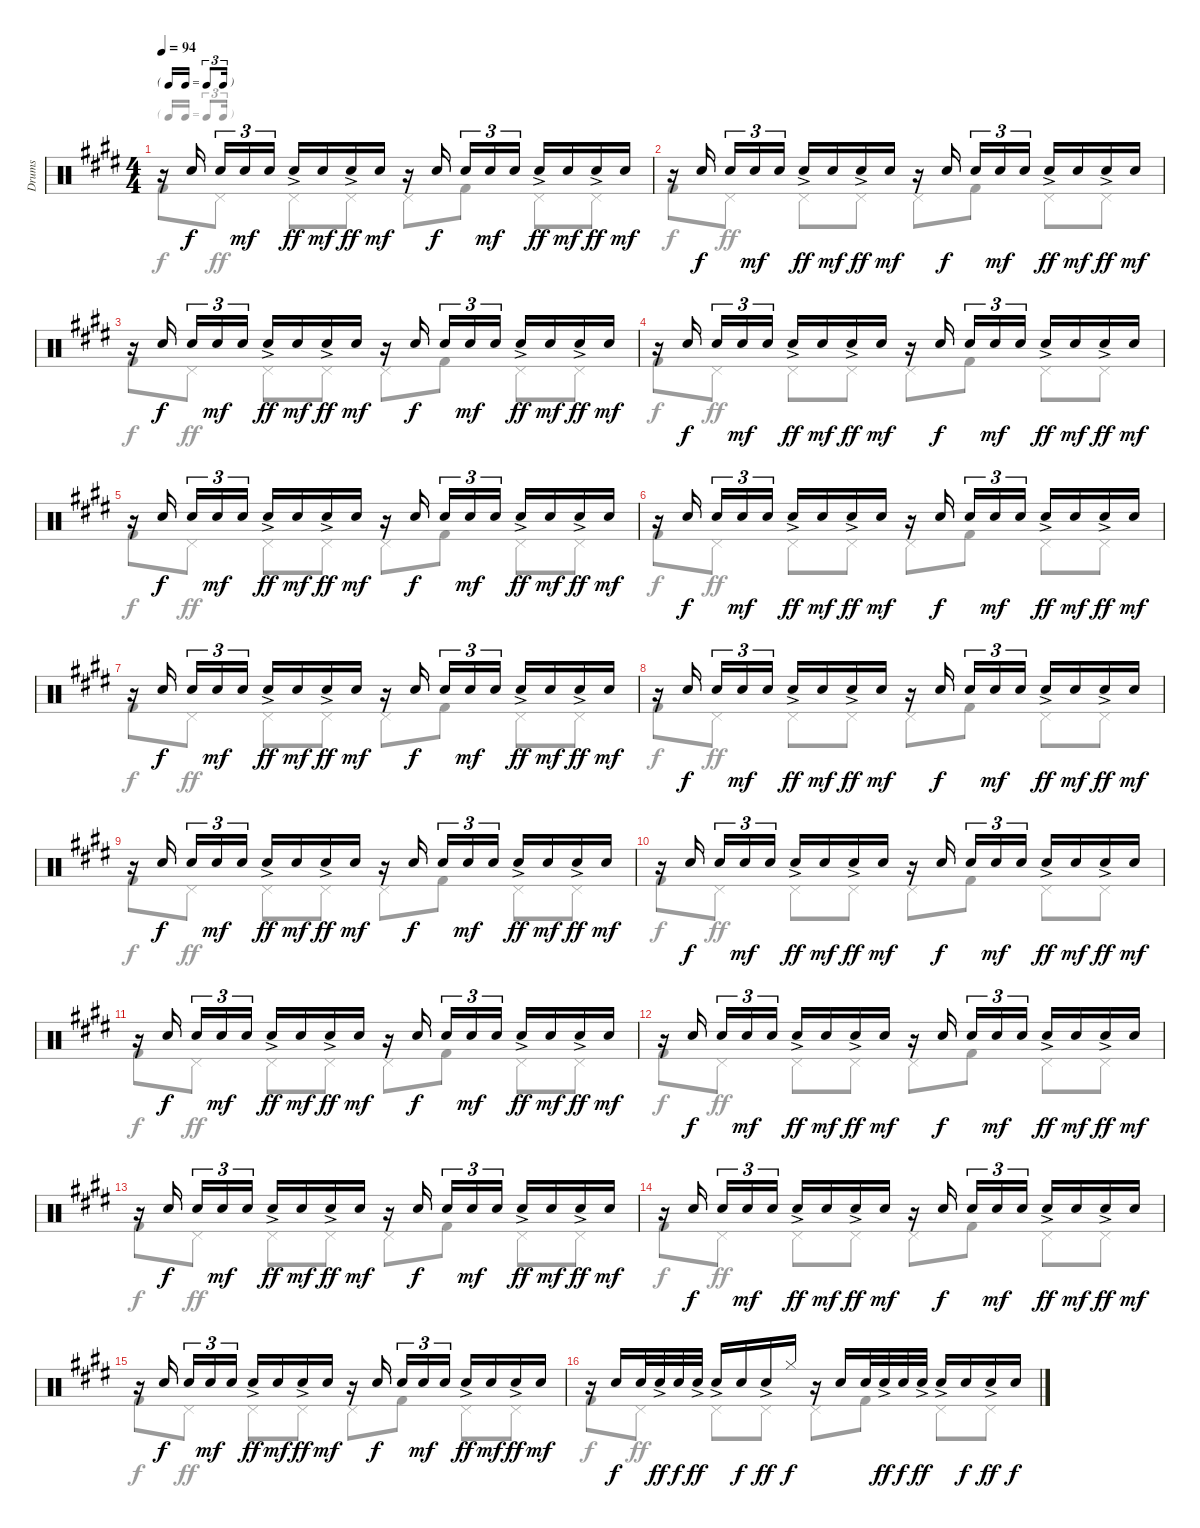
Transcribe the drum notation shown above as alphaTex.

\track ("Drums" "Drums") {instrument percussion}
\staff {score}
\articulation defaults
\voice
\ts (4 4)
\tf triplet16th
\tempo 94
\clef neutral
\ks e
r.16{dy mf} "Snare (hit) 2".16{dy f beam splitsecondary} "Snare (hit) 2".16{tu (3 2)} "Snare (hit) 2".16{tu (3 2) dy mf} "Snare (hit) 2".16{tu (3 2)} "Snare (hit) 2"{ac}.16{dy ff} "Snare (hit) 2".16{dy mf} "Snare (hit) 2"{ac}.16{dy ff} "Snare (hit) 2".16{dy mf} r.16 "Snare (hit) 2".16{dy f beam splitsecondary} "Snare (hit) 2".16{tu (3 2)} "Snare (hit) 2".16{tu (3 2) dy mf} "Snare (hit) 2".16{tu (3 2)} "Snare (hit) 2"{ac}.16{dy ff} "Snare (hit) 2".16{dy mf} "Snare (hit) 2"{ac}.16{dy ff} "Snare (hit) 2".16{dy mf} |
r.16 "Snare (hit) 2".16{dy f beam splitsecondary} "Snare (hit) 2".16{tu (3 2)} "Snare (hit) 2".16{tu (3 2) dy mf} "Snare (hit) 2".16{tu (3 2)} "Snare (hit) 2"{ac}.16{dy ff} "Snare (hit) 2".16{dy mf} "Snare (hit) 2"{ac}.16{dy ff} "Snare (hit) 2".16{dy mf} r.16 "Snare (hit) 2".16{dy f beam splitsecondary} "Snare (hit) 2".16{tu (3 2)} "Snare (hit) 2".16{tu (3 2) dy mf} "Snare (hit) 2".16{tu (3 2)} "Snare (hit) 2"{ac}.16{dy ff} "Snare (hit) 2".16{dy mf} "Snare (hit) 2"{ac}.16{dy ff} "Snare (hit) 2".16{dy mf} |
r.16 "Snare (hit) 2".16{dy f beam splitsecondary} "Snare (hit) 2".16{tu (3 2)} "Snare (hit) 2".16{tu (3 2) dy mf} "Snare (hit) 2".16{tu (3 2)} "Snare (hit) 2"{ac}.16{dy ff} "Snare (hit) 2".16{dy mf} "Snare (hit) 2"{ac}.16{dy ff} "Snare (hit) 2".16{dy mf} r.16 "Snare (hit) 2".16{dy f beam splitsecondary} "Snare (hit) 2".16{tu (3 2)} "Snare (hit) 2".16{tu (3 2) dy mf} "Snare (hit) 2".16{tu (3 2)} "Snare (hit) 2"{ac}.16{dy ff} "Snare (hit) 2".16{dy mf} "Snare (hit) 2"{ac}.16{dy ff} "Snare (hit) 2".16{dy mf} |
r.16 "Snare (hit) 2".16{dy f beam splitsecondary} "Snare (hit) 2".16{tu (3 2)} "Snare (hit) 2".16{tu (3 2) dy mf} "Snare (hit) 2".16{tu (3 2)} "Snare (hit) 2"{ac}.16{dy ff} "Snare (hit) 2".16{dy mf} "Snare (hit) 2"{ac}.16{dy ff} "Snare (hit) 2".16{dy mf} r.16 "Snare (hit) 2".16{dy f beam splitsecondary} "Snare (hit) 2".16{tu (3 2)} "Snare (hit) 2".16{tu (3 2) dy mf} "Snare (hit) 2".16{tu (3 2)} "Snare (hit) 2"{ac}.16{dy ff} "Snare (hit) 2".16{dy mf} "Snare (hit) 2"{ac}.16{dy ff} "Snare (hit) 2".16{dy mf} |
r.16 "Snare (hit) 2".16{dy f beam splitsecondary} "Snare (hit) 2".16{tu (3 2)} "Snare (hit) 2".16{tu (3 2) dy mf} "Snare (hit) 2".16{tu (3 2)} "Snare (hit) 2"{ac}.16{dy ff} "Snare (hit) 2".16{dy mf} "Snare (hit) 2"{ac}.16{dy ff} "Snare (hit) 2".16{dy mf} r.16 "Snare (hit) 2".16{dy f beam splitsecondary} "Snare (hit) 2".16{tu (3 2)} "Snare (hit) 2".16{tu (3 2) dy mf} "Snare (hit) 2".16{tu (3 2)} "Snare (hit) 2"{ac}.16{dy ff} "Snare (hit) 2".16{dy mf} "Snare (hit) 2"{ac}.16{dy ff} "Snare (hit) 2".16{dy mf} |
r.16 "Snare (hit) 2".16{dy f beam splitsecondary} "Snare (hit) 2".16{tu (3 2)} "Snare (hit) 2".16{tu (3 2) dy mf} "Snare (hit) 2".16{tu (3 2)} "Snare (hit) 2"{ac}.16{dy ff} "Snare (hit) 2".16{dy mf} "Snare (hit) 2"{ac}.16{dy ff} "Snare (hit) 2".16{dy mf} r.16 "Snare (hit) 2".16{dy f beam splitsecondary} "Snare (hit) 2".16{tu (3 2)} "Snare (hit) 2".16{tu (3 2) dy mf} "Snare (hit) 2".16{tu (3 2)} "Snare (hit) 2"{ac}.16{dy ff} "Snare (hit) 2".16{dy mf} "Snare (hit) 2"{ac}.16{dy ff} "Snare (hit) 2".16{dy mf} |
r.16 "Snare (hit) 2".16{dy f beam splitsecondary} "Snare (hit) 2".16{tu (3 2)} "Snare (hit) 2".16{tu (3 2) dy mf} "Snare (hit) 2".16{tu (3 2)} "Snare (hit) 2"{ac}.16{dy ff} "Snare (hit) 2".16{dy mf} "Snare (hit) 2"{ac}.16{dy ff} "Snare (hit) 2".16{dy mf} r.16 "Snare (hit) 2".16{dy f beam splitsecondary} "Snare (hit) 2".16{tu (3 2)} "Snare (hit) 2".16{tu (3 2) dy mf} "Snare (hit) 2".16{tu (3 2)} "Snare (hit) 2"{ac}.16{dy ff} "Snare (hit) 2".16{dy mf} "Snare (hit) 2"{ac}.16{dy ff} "Snare (hit) 2".16{dy mf} |
r.16 "Snare (hit) 2".16{dy f beam splitsecondary} "Snare (hit) 2".16{tu (3 2)} "Snare (hit) 2".16{tu (3 2) dy mf} "Snare (hit) 2".16{tu (3 2)} "Snare (hit) 2"{ac}.16{dy ff} "Snare (hit) 2".16{dy mf} "Snare (hit) 2"{ac}.16{dy ff} "Snare (hit) 2".16{dy mf} r.16 "Snare (hit) 2".16{dy f beam splitsecondary} "Snare (hit) 2".16{tu (3 2)} "Snare (hit) 2".16{tu (3 2) dy mf} "Snare (hit) 2".16{tu (3 2)} "Snare (hit) 2"{ac}.16{dy ff} "Snare (hit) 2".16{dy mf} "Snare (hit) 2"{ac}.16{dy ff} "Snare (hit) 2".16{dy mf} |
r.16 "Snare (hit) 2".16{dy f beam splitsecondary} "Snare (hit) 2".16{tu (3 2)} "Snare (hit) 2".16{tu (3 2) dy mf} "Snare (hit) 2".16{tu (3 2)} "Snare (hit) 2"{ac}.16{dy ff} "Snare (hit) 2".16{dy mf} "Snare (hit) 2"{ac}.16{dy ff} "Snare (hit) 2".16{dy mf} r.16 "Snare (hit) 2".16{dy f beam splitsecondary} "Snare (hit) 2".16{tu (3 2)} "Snare (hit) 2".16{tu (3 2) dy mf} "Snare (hit) 2".16{tu (3 2)} "Snare (hit) 2"{ac}.16{dy ff} "Snare (hit) 2".16{dy mf} "Snare (hit) 2"{ac}.16{dy ff} "Snare (hit) 2".16{dy mf} |
r.16 "Snare (hit) 2".16{dy f beam splitsecondary} "Snare (hit) 2".16{tu (3 2)} "Snare (hit) 2".16{tu (3 2) dy mf} "Snare (hit) 2".16{tu (3 2)} "Snare (hit) 2"{ac}.16{dy ff} "Snare (hit) 2".16{dy mf} "Snare (hit) 2"{ac}.16{dy ff} "Snare (hit) 2".16{dy mf} r.16 "Snare (hit) 2".16{dy f beam splitsecondary} "Snare (hit) 2".16{tu (3 2)} "Snare (hit) 2".16{tu (3 2) dy mf} "Snare (hit) 2".16{tu (3 2)} "Snare (hit) 2"{ac}.16{dy ff} "Snare (hit) 2".16{dy mf} "Snare (hit) 2"{ac}.16{dy ff} "Snare (hit) 2".16{dy mf} |
r.16 "Snare (hit) 2".16{dy f beam splitsecondary} "Snare (hit) 2".16{tu (3 2)} "Snare (hit) 2".16{tu (3 2) dy mf} "Snare (hit) 2".16{tu (3 2)} "Snare (hit) 2"{ac}.16{dy ff} "Snare (hit) 2".16{dy mf} "Snare (hit) 2"{ac}.16{dy ff} "Snare (hit) 2".16{dy mf} r.16 "Snare (hit) 2".16{dy f beam splitsecondary} "Snare (hit) 2".16{tu (3 2)} "Snare (hit) 2".16{tu (3 2) dy mf} "Snare (hit) 2".16{tu (3 2)} "Snare (hit) 2"{ac}.16{dy ff} "Snare (hit) 2".16{dy mf} "Snare (hit) 2"{ac}.16{dy ff} "Snare (hit) 2".16{dy mf} |
r.16 "Snare (hit) 2".16{dy f beam splitsecondary} "Snare (hit) 2".16{tu (3 2)} "Snare (hit) 2".16{tu (3 2) dy mf} "Snare (hit) 2".16{tu (3 2)} "Snare (hit) 2"{ac}.16{dy ff} "Snare (hit) 2".16{dy mf} "Snare (hit) 2"{ac}.16{dy ff} "Snare (hit) 2".16{dy mf} r.16 "Snare (hit) 2".16{dy f beam splitsecondary} "Snare (hit) 2".16{tu (3 2)} "Snare (hit) 2".16{tu (3 2) dy mf} "Snare (hit) 2".16{tu (3 2)} "Snare (hit) 2"{ac}.16{dy ff} "Snare (hit) 2".16{dy mf} "Snare (hit) 2"{ac}.16{dy ff} "Snare (hit) 2".16{dy mf} |
r.16 "Snare (hit) 2".16{dy f beam splitsecondary} "Snare (hit) 2".16{tu (3 2)} "Snare (hit) 2".16{tu (3 2) dy mf} "Snare (hit) 2".16{tu (3 2)} "Snare (hit) 2"{ac}.16{dy ff} "Snare (hit) 2".16{dy mf} "Snare (hit) 2"{ac}.16{dy ff} "Snare (hit) 2".16{dy mf} r.16 "Snare (hit) 2".16{dy f beam splitsecondary} "Snare (hit) 2".16{tu (3 2)} "Snare (hit) 2".16{tu (3 2) dy mf} "Snare (hit) 2".16{tu (3 2)} "Snare (hit) 2"{ac}.16{dy ff} "Snare (hit) 2".16{dy mf} "Snare (hit) 2"{ac}.16{dy ff} "Snare (hit) 2".16{dy mf} |
r.16 "Snare (hit) 2".16{dy f beam splitsecondary} "Snare (hit) 2".16{tu (3 2)} "Snare (hit) 2".16{tu (3 2) dy mf} "Snare (hit) 2".16{tu (3 2)} "Snare (hit) 2"{ac}.16{dy ff} "Snare (hit) 2".16{dy mf} "Snare (hit) 2"{ac}.16{dy ff} "Snare (hit) 2".16{dy mf} r.16 "Snare (hit) 2".16{dy f beam splitsecondary} "Snare (hit) 2".16{tu (3 2)} "Snare (hit) 2".16{tu (3 2) dy mf} "Snare (hit) 2".16{tu (3 2)} "Snare (hit) 2"{ac}.16{dy ff} "Snare (hit) 2".16{dy mf} "Snare (hit) 2"{ac}.16{dy ff} "Snare (hit) 2".16{dy mf} |
r.16 "Snare (hit) 2".16{dy f beam splitsecondary} "Snare (hit) 2".16{tu (3 2)} "Snare (hit) 2".16{tu (3 2) dy mf} "Snare (hit) 2".16{tu (3 2)} "Snare (hit) 2"{ac}.16{dy ff} "Snare (hit) 2".16{dy mf} "Snare (hit) 2"{ac}.16{dy ff} "Snare (hit) 2".16{dy mf} r.16 "Snare (hit) 2".16{dy f beam splitsecondary} "Snare (hit) 2".16{tu (3 2)} "Snare (hit) 2".16{tu (3 2) dy mf} "Snare (hit) 2".16{tu (3 2)} "Snare (hit) 2"{ac}.16{dy ff} "Snare (hit) 2".16{dy mf} "Snare (hit) 2"{ac}.16{dy ff} "Snare (hit) 2".16{dy mf} |
r.16 "Snare (hit) 2".16{dy f} "Snare (hit) 2".32 "Snare (hit) 2"{ac}.32{dy ff} "Snare (hit) 2".32{dy f} "Snare (hit) 2"{ac}.32{dy ff} "Snare (hit) 2"{ac}.16 "Snare (hit) 2".16{dy f} "Snare (hit) 2"{ac}.16{dy ff} "Hi-Hat (closed)".16{dy f} r.16 "Snare (hit) 2".16 "Snare (hit) 2".32 "Snare (hit) 2"{ac}.32{dy ff} "Snare (hit) 2".32{dy f} "Snare (hit) 2"{ac}.32{dy ff} "Snare (hit) 2"{ac}.16 "Snare (hit) 2".16{dy f} "Snare (hit) 2"{ac}.16{dy ff} "Snare (hit) 2".16{dy f}
\voice
\clef neutral
\ottava regular
\simile none
\ks e "Kick (hit) 2".8{dy f} "Pedal Hi-Hat (hit)".8{dy ff} "Pedal Hi-Hat (hit)".8 "Pedal Hi-Hat (hit)".8 "Pedal Hi-Hat (hit)".8 "Kick (hit) 2".8 "Pedal Hi-Hat (hit)".8 "Pedal Hi-Hat (hit)".8
|
"Kick (hit) 2".8{dy f} "Pedal Hi-Hat (hit)".8{dy ff} "Pedal Hi-Hat (hit)".8 "Pedal Hi-Hat (hit)".8 "Pedal Hi-Hat (hit)".8 "Kick (hit) 2".8 "Pedal Hi-Hat (hit)".8 "Pedal Hi-Hat (hit)".8 |
"Kick (hit) 2".8{dy f} "Pedal Hi-Hat (hit)".8{dy ff} "Pedal Hi-Hat (hit)".8 "Pedal Hi-Hat (hit)".8 "Pedal Hi-Hat (hit)".8 "Kick (hit) 2".8 "Pedal Hi-Hat (hit)".8 "Pedal Hi-Hat (hit)".8 |
"Kick (hit) 2".8{dy f} "Pedal Hi-Hat (hit)".8{dy ff} "Pedal Hi-Hat (hit)".8 "Pedal Hi-Hat (hit)".8 "Pedal Hi-Hat (hit)".8 "Kick (hit) 2".8 "Pedal Hi-Hat (hit)".8 "Pedal Hi-Hat (hit)".8 |
"Kick (hit) 2".8{dy f} "Pedal Hi-Hat (hit)".8{dy ff} "Pedal Hi-Hat (hit)".8 "Pedal Hi-Hat (hit)".8 "Pedal Hi-Hat (hit)".8 "Kick (hit) 2".8 "Pedal Hi-Hat (hit)".8 "Pedal Hi-Hat (hit)".8 |
"Kick (hit) 2".8{dy f} "Pedal Hi-Hat (hit)".8{dy ff} "Pedal Hi-Hat (hit)".8 "Pedal Hi-Hat (hit)".8 "Pedal Hi-Hat (hit)".8 "Kick (hit) 2".8 "Pedal Hi-Hat (hit)".8 "Pedal Hi-Hat (hit)".8 |
"Kick (hit) 2".8{dy f} "Pedal Hi-Hat (hit)".8{dy ff} "Pedal Hi-Hat (hit)".8 "Pedal Hi-Hat (hit)".8 "Pedal Hi-Hat (hit)".8 "Kick (hit) 2".8 "Pedal Hi-Hat (hit)".8 "Pedal Hi-Hat (hit)".8 |
"Kick (hit) 2".8{dy f} "Pedal Hi-Hat (hit)".8{dy ff} "Pedal Hi-Hat (hit)".8 "Pedal Hi-Hat (hit)".8 "Pedal Hi-Hat (hit)".8 "Kick (hit) 2".8 "Pedal Hi-Hat (hit)".8 "Pedal Hi-Hat (hit)".8 |
"Kick (hit) 2".8{dy f} "Pedal Hi-Hat (hit)".8{dy ff} "Pedal Hi-Hat (hit)".8 "Pedal Hi-Hat (hit)".8 "Pedal Hi-Hat (hit)".8 "Kick (hit) 2".8 "Pedal Hi-Hat (hit)".8 "Pedal Hi-Hat (hit)".8 |
"Kick (hit) 2".8{dy f} "Pedal Hi-Hat (hit)".8{dy ff} "Pedal Hi-Hat (hit)".8 "Pedal Hi-Hat (hit)".8 "Pedal Hi-Hat (hit)".8 "Kick (hit) 2".8 "Pedal Hi-Hat (hit)".8 "Pedal Hi-Hat (hit)".8 |
"Kick (hit) 2".8{dy f} "Pedal Hi-Hat (hit)".8{dy ff} "Pedal Hi-Hat (hit)".8 "Pedal Hi-Hat (hit)".8 "Pedal Hi-Hat (hit)".8 "Kick (hit) 2".8 "Pedal Hi-Hat (hit)".8 "Pedal Hi-Hat (hit)".8 |
"Kick (hit) 2".8{dy f} "Pedal Hi-Hat (hit)".8{dy ff} "Pedal Hi-Hat (hit)".8 "Pedal Hi-Hat (hit)".8 "Pedal Hi-Hat (hit)".8 "Kick (hit) 2".8 "Pedal Hi-Hat (hit)".8 "Pedal Hi-Hat (hit)".8 |
"Kick (hit) 2".8{dy f} "Pedal Hi-Hat (hit)".8{dy ff} "Pedal Hi-Hat (hit)".8 "Pedal Hi-Hat (hit)".8 "Pedal Hi-Hat (hit)".8 "Kick (hit) 2".8 "Pedal Hi-Hat (hit)".8 "Pedal Hi-Hat (hit)".8 |
"Kick (hit) 2".8{dy f} "Pedal Hi-Hat (hit)".8{dy ff} "Pedal Hi-Hat (hit)".8 "Pedal Hi-Hat (hit)".8 "Pedal Hi-Hat (hit)".8 "Kick (hit) 2".8 "Pedal Hi-Hat (hit)".8 "Pedal Hi-Hat (hit)".8 |
"Kick (hit) 2".8{dy f} "Pedal Hi-Hat (hit)".8{dy ff} "Pedal Hi-Hat (hit)".8 "Pedal Hi-Hat (hit)".8 "Pedal Hi-Hat (hit)".8 "Kick (hit) 2".8 "Pedal Hi-Hat (hit)".8 "Pedal Hi-Hat (hit)".8 |
"Kick (hit) 2".8{dy f} "Pedal Hi-Hat (hit)".8{dy ff} "Pedal Hi-Hat (hit)".8 "Pedal Hi-Hat (hit)".8 "Pedal Hi-Hat (hit)".8 "Kick (hit) 2".8 "Pedal Hi-Hat (hit)".8 "Pedal Hi-Hat (hit)".8
